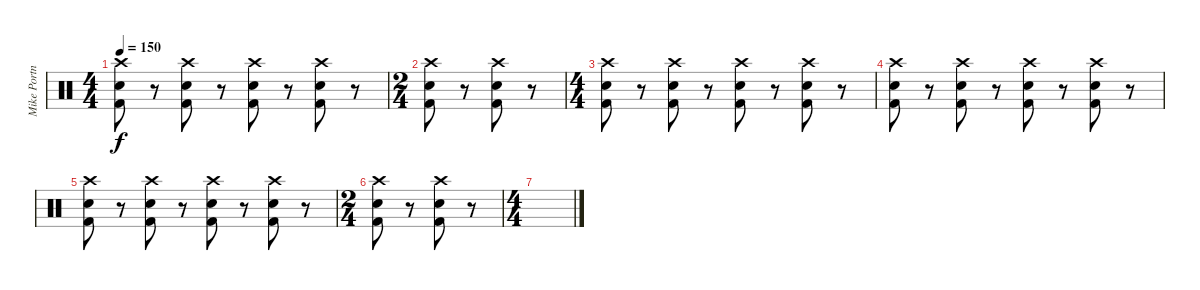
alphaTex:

\track ("Mike Portnoy" "Mike Portn") {instrument percussion}
\staff {score}
\articulation defaults
\ts (4 4)
\tempo 150
\clef neutral
\ks c
("Crash high (hit)" "Electric Snare (hit)" "Kick (hit) 2").8{dy f} r.8 ("Crash high (hit)" "Electric Snare (hit)" "Kick (hit) 2").8 r.8 ("Crash high (hit)" "Electric Snare (hit)" "Kick (hit) 2").8 r.8 ("Crash high (hit)" "Electric Snare (hit)" "Kick (hit) 2").8 r.8 |
\ts (2 4)
("Crash high (hit)" "Electric Snare (hit)" "Kick (hit) 2").8 r.8 ("Crash high (hit)" "Electric Snare (hit)" "Kick (hit) 2").8 r.8 |
\ts (4 4)
("Crash high (hit)" "Electric Snare (hit)" "Kick (hit) 2").8 r.8 ("Crash high (hit)" "Electric Snare (hit)" "Kick (hit) 2").8 r.8 ("Crash high (hit)" "Electric Snare (hit)" "Kick (hit) 2").8 r.8 ("Crash high (hit)" "Electric Snare (hit)" "Kick (hit) 2").8 r.8 |
("Crash high (hit)" "Electric Snare (hit)" "Kick (hit) 2").8 r.8 ("Crash high (hit)" "Electric Snare (hit)" "Kick (hit) 2").8 r.8 ("Crash high (hit)" "Electric Snare (hit)" "Kick (hit) 2").8 r.8 ("Crash high (hit)" "Electric Snare (hit)" "Kick (hit) 2").8 r.8 |
("Crash high (hit)" "Electric Snare (hit)" "Kick (hit) 2").8 r.8 ("Crash high (hit)" "Electric Snare (hit)" "Kick (hit) 2").8 r.8 ("Crash high (hit)" "Electric Snare (hit)" "Kick (hit) 2").8 r.8 ("Crash high (hit)" "Electric Snare (hit)" "Kick (hit) 2").8 r.8 |
\ts (2 4)
("Crash high (hit)" "Electric Snare (hit)" "Kick (hit) 2").8 r.8 ("Crash high (hit)" "Electric Snare (hit)" "Kick (hit) 2").8 r.8 |
\ts (4 4)
